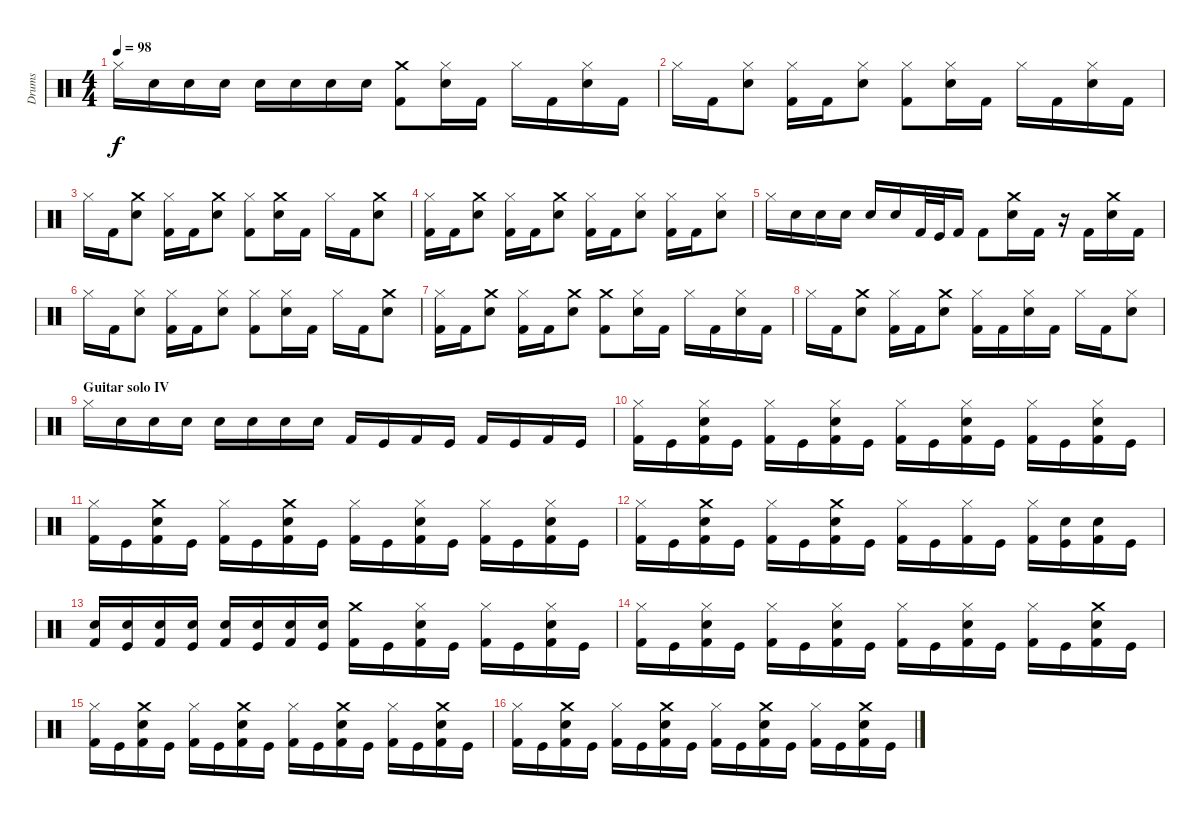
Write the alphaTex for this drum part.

\track ("Drums" "Drums") {instrument percussion}
\staff {score}
\articulation defaults
\ts (4 4)
\tempo 98
\clef neutral
\ks c "Hi-Hat (closed)".16{dy f} "Snare (hit) 2".16 "Snare (hit) 2".16 "Snare (hit) 2".16 "Snare (hit) 2".16 "Snare (hit) 2".16 "Snare (hit) 2".16 "Snare (hit) 2".16
("Crash medium (hit)" "Kick (hit) 2").8 ("Snare (hit) 2" "Hi-Hat (closed)").16 "Kick (hit) 2".16 "Hi-Hat (closed)".16 "Kick (hit) 2".16 ("Snare (hit) 2" "Hi-Hat (closed)").16 "Kick (hit) 2".16 |
"Hi-Hat (closed)".16 "Kick (hit) 2".16 ("Snare (hit) 2" "Hi-Hat (closed)").8 ("Kick (hit) 2" "Hi-Hat (closed)").16 "Kick (hit) 2".16 ("Snare (hit) 2" "Hi-Hat (closed)").8 ("Kick (hit) 2" "Hi-Hat (closed)").8 ("Snare (hit) 2" "Hi-Hat (closed)").16 "Kick (hit) 2".16 "Hi-Hat (closed)".16 "Kick (hit) 2".16 ("Snare (hit) 2" "Hi-Hat (closed)").16 "Kick (hit) 2".16 |
"Hi-Hat (closed)".16 "Kick (hit) 2".16 ("Snare (hit) 2" "Crash medium (hit)").8 ("Hi-Hat (closed)" "Kick (hit) 2").16 "Kick (hit) 2".16 ("Crash medium (hit)" "Snare (hit) 2").8 ("Hi-Hat (closed)" "Kick (hit) 2").8 ("Crash medium (hit)" "Snare (hit) 2").16 "Kick (hit) 2".16 "Hi-Hat (closed)".16 "Kick (hit) 2".16 ("Snare (hit) 2" "Crash medium (hit)").8 |
("Kick (hit) 2" "Hi-Hat (closed)").16 "Kick (hit) 2".16 ("Crash medium (hit)" "Snare (hit) 2").8 ("Kick (hit) 2" "Hi-Hat (closed)").16 "Kick (hit) 2".16 ("Crash medium (hit)" "Snare (hit) 2").8 ("Kick (hit) 2" "Hi-Hat (closed)").16 "Kick (hit) 2".16 ("Snare (hit) 2" "Hi-Hat (closed)").8 ("Kick (hit) 2" "Hi-Hat (closed)").16 "Kick (hit) 2".16 ("Snare (hit) 2" "Hi-Hat (closed)").8 |
"Hi-Hat (closed)".16 "Snare (hit) 2".16 "Snare (hit) 2".16 "Snare (hit) 2".16 "Snare (hit) 2".16 "Snare (hit) 2".16 "Kick (hit) 2".32 "Kick (hit)".32 "Kick (hit) 2".16 "Kick (hit) 2".8 ("Snare (hit) 2" "Crash medium (hit)").16 "Kick (hit) 2".16 r.16 "Kick (hit) 2".16 ("Crash medium (hit)" "Snare (hit) 2").16 "Kick (hit) 2".16 |
"Hi-Hat (closed)".16 "Kick (hit) 2".16 ("Snare (hit) 2" "Hi-Hat (closed)").8 ("Kick (hit) 2" "Hi-Hat (closed)").16 "Kick (hit) 2".16 ("Snare (hit) 2" "Hi-Hat (closed)").8 ("Kick (hit) 2" "Hi-Hat (closed)").8 ("Snare (hit) 2" "Hi-Hat (closed)").16 "Kick (hit) 2".16 "Hi-Hat (closed)".16 "Kick (hit) 2".16 ("Crash medium (hit)" "Snare (hit) 2").8 |
("Hi-Hat (closed)" "Kick (hit) 2").16 "Kick (hit) 2".16 ("Crash medium (hit)" "Snare (hit) 2").8 ("Hi-Hat (closed)" "Kick (hit) 2").16 "Kick (hit) 2".16 ("Crash medium (hit)" "Snare (hit) 2").8 ("Crash medium (hit)" "Kick (hit) 2").8 ("Snare (hit) 2" "Hi-Hat (closed)").16 "Kick (hit) 2".16 "Hi-Hat (closed)".16 "Kick (hit) 2".16 ("Snare (hit) 2" "Hi-Hat (closed)").16 "Kick (hit) 2".16 |
"Hi-Hat (closed)".16 "Kick (hit) 2".16 ("Crash medium (hit)" "Snare (hit) 2").8 ("Hi-Hat (closed)" "Kick (hit) 2").16 "Kick (hit) 2".16 ("Crash medium (hit)" "Snare (hit) 2").8 ("Hi-Hat (closed)" "Kick (hit) 2").16 "Kick (hit) 2".16 ("Snare (hit) 2" "Hi-Hat (closed)").16 "Kick (hit) 2".16 "Hi-Hat (closed)".16 "Kick (hit) 2".16 ("Snare (hit) 2" "Hi-Hat (closed)").8 |
\section ("" "Guitar solo IV")
"Hi-Hat (closed)".16 "Snare (hit) 2".16 "Snare (hit) 2".16 "Snare (hit) 2".16 "Snare (hit) 2".16 "Snare (hit) 2".16 "Snare (hit) 2".16 "Snare (hit) 2".16 "Kick (hit) 2".16 "Kick (hit)".16 "Kick (hit) 2".16 "Kick (hit)".16 "Kick (hit) 2".16 "Kick (hit)".16 "Kick (hit) 2".16 "Kick (hit)".16 |
("Hi-Hat (closed)" "Kick (hit) 2").16 "Kick (hit)".16 ("Snare (hit) 2" "Hi-Hat (closed)" "Kick (hit) 2").16 "Kick (hit)".16 ("Hi-Hat (closed)" "Kick (hit) 2").16 "Kick (hit)".16 ("Snare (hit) 2" "Hi-Hat (closed)" "Kick (hit) 2").16 "Kick (hit)".16 ("Hi-Hat (closed)" "Kick (hit) 2").16 "Kick (hit)".16 ("Snare (hit) 2" "Hi-Hat (closed)" "Kick (hit) 2").16 "Kick (hit)".16 ("Hi-Hat (closed)" "Kick (hit) 2").16 "Kick (hit)".16 ("Snare (hit) 2" "Hi-Hat (closed)" "Kick (hit) 2").16 "Kick (hit)".16 |
("Hi-Hat (closed)" "Kick (hit) 2").16 "Kick (hit)".16 ("Crash medium (hit)" "Snare (hit) 2" "Kick (hit) 2").16 "Kick (hit)".16 ("Hi-Hat (closed)" "Kick (hit) 2").16 "Kick (hit)".16 ("Crash medium (hit)" "Snare (hit) 2" "Kick (hit) 2").16 "Kick (hit)".16 ("Hi-Hat (closed)" "Kick (hit) 2").16 "Kick (hit)".16 ("Snare (hit) 2" "Hi-Hat (closed)" "Kick (hit) 2").16 "Kick (hit)".16 ("Hi-Hat (closed)" "Kick (hit) 2").16 "Kick (hit)".16 ("Snare (hit) 2" "Hi-Hat (closed)" "Kick (hit) 2").16 "Kick (hit)".16 |
("Hi-Hat (closed)" "Kick (hit) 2").16 "Kick (hit)".16 ("Crash medium (hit)" "Snare (hit) 2" "Kick (hit) 2").16 "Kick (hit)".16 ("Hi-Hat (closed)" "Kick (hit) 2").16 "Kick (hit)".16 ("Crash medium (hit)" "Snare (hit) 2" "Kick (hit) 2").16 "Kick (hit)".16 ("Hi-Hat (closed)" "Kick (hit) 2").16 "Kick (hit)".16 ("Hi-Hat (closed)" "Kick (hit) 2").16 "Kick (hit)".16 ("Hi-Hat (closed)" "Kick (hit) 2").16 ("Snare (hit) 2" "Kick (hit)").16 ("Snare (hit) 2" "Kick (hit) 2").16 "Kick (hit)".16 |
("Snare (hit) 2" "Kick (hit) 2").16 ("Snare (hit) 2" "Kick (hit)").16 ("Snare (hit) 2" "Kick (hit) 2").16 ("Snare (hit) 2" "Kick (hit)").16 ("Snare (hit) 2" "Kick (hit) 2").16 ("Snare (hit) 2" "Kick (hit)").16 ("Snare (hit) 2" "Kick (hit) 2").16 ("Snare (hit) 2" "Kick (hit)").16 ("Crash medium (hit)" "Kick (hit) 2").16 "Kick (hit)".16 ("Snare (hit) 2" "Hi-Hat (closed)" "Kick (hit) 2").16 "Kick (hit)".16 ("Hi-Hat (closed)" "Kick (hit) 2").16 "Kick (hit)".16 ("Snare (hit) 2" "Hi-Hat (closed)" "Kick (hit) 2").16 "Kick (hit)".16 |
("Hi-Hat (closed)" "Kick (hit) 2").16 "Kick (hit)".16 ("Snare (hit) 2" "Hi-Hat (closed)" "Kick (hit) 2").16 "Kick (hit)".16 ("Hi-Hat (closed)" "Kick (hit) 2").16 "Kick (hit)".16 ("Snare (hit) 2" "Hi-Hat (closed)" "Kick (hit) 2").16 "Kick (hit)".16 ("Hi-Hat (closed)" "Kick (hit) 2").16 "Kick (hit)".16 ("Snare (hit) 2" "Hi-Hat (closed)" "Kick (hit) 2").16 "Kick (hit)".16 ("Hi-Hat (closed)" "Kick (hit) 2").16 "Kick (hit)".16 ("Crash medium (hit)" "Snare (hit) 2" "Kick (hit) 2").16 "Kick (hit)".16 |
("Hi-Hat (closed)" "Kick (hit) 2").16 "Kick (hit)".16 ("Crash medium (hit)" "Snare (hit) 2" "Kick (hit) 2").16 "Kick (hit)".16 ("Hi-Hat (closed)" "Kick (hit) 2").16 "Kick (hit)".16 ("Crash medium (hit)" "Snare (hit) 2" "Kick (hit) 2").16 "Kick (hit)".16 ("Hi-Hat (closed)" "Kick (hit) 2").16 "Kick (hit)".16 ("Crash medium (hit)" "Snare (hit) 2" "Kick (hit) 2").16 "Kick (hit)".16 ("Hi-Hat (closed)" "Kick (hit) 2").16 "Kick (hit)".16 ("Crash medium (hit)" "Snare (hit) 2" "Kick (hit) 2").16 "Kick (hit)".16 |
("Hi-Hat (closed)" "Kick (hit) 2").16 "Kick (hit)".16 ("Crash medium (hit)" "Snare (hit) 2" "Kick (hit) 2").16 "Kick (hit)".16 ("Hi-Hat (closed)" "Kick (hit) 2").16 "Kick (hit)".16 ("Crash medium (hit)" "Snare (hit) 2" "Kick (hit) 2").16 "Kick (hit)".16 ("Hi-Hat (closed)" "Kick (hit) 2").16 "Kick (hit)".16 ("Crash medium (hit)" "Snare (hit) 2" "Kick (hit) 2").16 "Kick (hit)".16 ("Hi-Hat (closed)" "Kick (hit) 2").16 "Kick (hit)".16 ("Crash medium (hit)" "Snare (hit) 2" "Kick (hit) 2").16 "Kick (hit)".16
